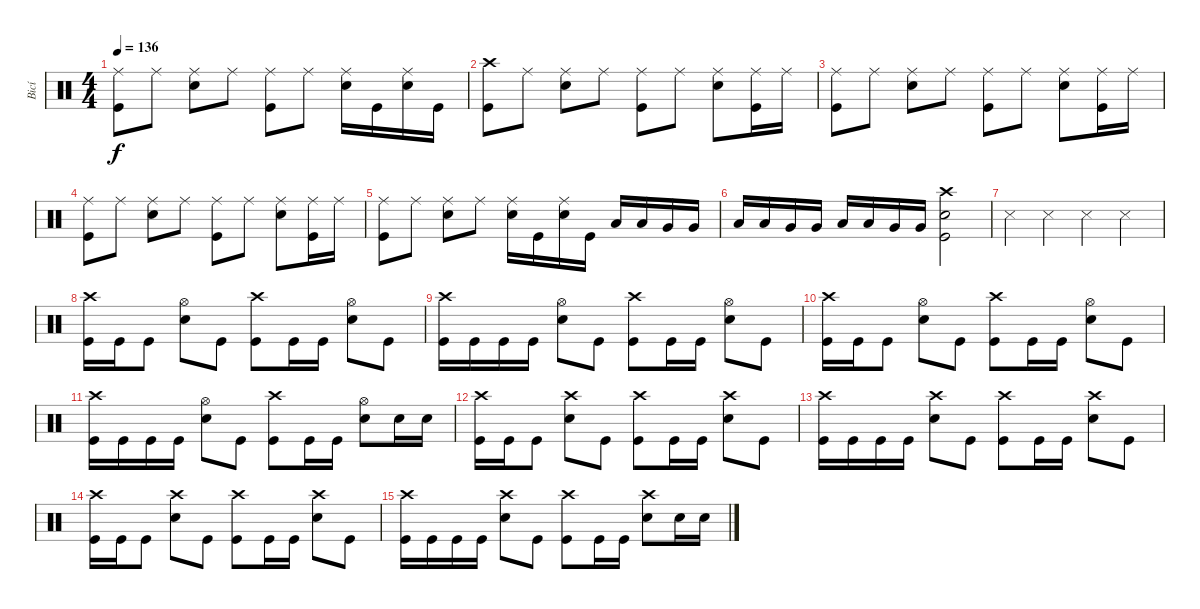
\track ("Bicí" "Bicí") {instrument percussion}
\staff {score}
\articulation defaults
\ts (4 4)
\tempo 136
\clef neutral
\ks c
("Kick (hit)" "Ride (middle)").8{dy f} "Ride (middle)".8 ("Snare (hit) 2" "Ride (middle)").8 "Ride (middle)".8 ("Kick (hit)" "Ride (middle)").8 "Ride (middle)".8 ("Snare (hit) 2" "Ride (middle)").16 "Kick (hit)".16 ("Snare (hit) 2" "Ride (middle)").16 "Kick (hit)".16 |
("Kick (hit)" "Crash high (hit)").8 "Ride (middle)".8 ("Snare (hit) 2" "Ride (middle)").8 "Ride (middle)".8 ("Kick (hit)" "Ride (middle)").8 "Ride (middle)".8 ("Snare (hit) 2" "Ride (middle)").8 ("Kick (hit)" "Ride (middle)").16 "Ride (middle)".16 |
("Kick (hit)" "Ride (middle)").8 "Ride (middle)".8 ("Snare (hit) 2" "Ride (middle)").8 "Ride (middle)".8 ("Kick (hit)" "Ride (middle)").8 "Ride (middle)".8 ("Snare (hit) 2" "Ride (middle)").8 ("Kick (hit)" "Ride (middle)").16 "Ride (middle)".16 |
("Kick (hit)" "Ride (middle)").8 "Ride (middle)".8 ("Snare (hit) 2" "Ride (middle)").8 "Ride (middle)".8 ("Kick (hit)" "Ride (middle)").8 "Ride (middle)".8 ("Snare (hit) 2" "Ride (middle)").8 ("Kick (hit)" "Ride (middle)").16 "Ride (middle)".16 |
("Kick (hit)" "Ride (middle)").8 "Ride (middle)".8 ("Snare (hit) 2" "Ride (middle)").8 "Ride (middle)".8 ("Snare (hit) 2" "Ride (middle)").16 "Kick (hit)".16 ("Snare (hit) 2" "Ride (middle)").16 "Kick (hit)".16 "Low Tom (hit)".16 "Low Tom (hit)".16 "Very Low Tom (hit)".16 "Very Low Tom (hit)".16 |
"Low Tom (hit)".16 "Low Tom (hit)".16 "Very Low Tom (hit)".16 "Very Low Tom (hit)".16 "Low Tom (hit)".16 "Low Tom (hit)".16 "Very Low Tom (hit)".16 "Very Low Tom (hit)".16 ("Kick (hit)" "Snare (hit) 2" "Crash high (hit)").2 |
"Snare (side stick) 3".4 "Snare (side stick) 3".4 "Snare (side stick) 3".4 "Snare (side stick) 3".4 |
("Crash high (hit)" "Kick (hit)").16 "Kick (hit)".16 "Kick (hit)".8 ("Snare (hit) 2" "Hi-Hat (open)").8 "Kick (hit)".8 ("Kick (hit)" "Crash high (hit)").8 "Kick (hit)".16 "Kick (hit)".16 ("Snare (hit) 2" "Hi-Hat (open)").8 "Kick (hit)".8 |
("Crash high (hit)" "Kick (hit)").16 "Kick (hit)".16 "Kick (hit)".16 "Kick (hit)".16 ("Hi-Hat (open)" "Snare (hit) 2").8 "Kick (hit)".8 ("Kick (hit)" "Crash high (hit)").8 "Kick (hit)".16 "Kick (hit)".16 ("Snare (hit) 2" "Hi-Hat (open)").8 "Kick (hit)".8 |
("Crash high (hit)" "Kick (hit)").16 "Kick (hit)".16 "Kick (hit)".8 ("Snare (hit) 2" "Hi-Hat (open)").8 "Kick (hit)".8 ("Kick (hit)" "Crash high (hit)").8 "Kick (hit)".16 "Kick (hit)".16 ("Snare (hit) 2" "Hi-Hat (open)").8 "Kick (hit)".8 |
("Crash high (hit)" "Kick (hit)").16 "Kick (hit)".16 "Kick (hit)".16 "Kick (hit)".16 ("Hi-Hat (open)" "Snare (hit) 2").8 "Kick (hit)".8 ("Kick (hit)" "Crash high (hit)").8 "Kick (hit)".16 "Kick (hit)".16 ("Snare (hit) 2" "Hi-Hat (open)").8 "Snare (hit) 2".16 "Snare (hit) 2".16 |
("Crash high (hit)" "Kick (hit)").16 "Kick (hit)".16 "Kick (hit)".8 ("Snare (hit) 2" "Crash high (hit)").8 "Kick (hit)".8 ("Kick (hit)" "Crash high (hit)").8 "Kick (hit)".16 "Kick (hit)".16 ("Snare (hit) 2" "Crash high (hit)").8 "Kick (hit)".8 |
("Crash high (hit)" "Kick (hit)").16 "Kick (hit)".16 "Kick (hit)".16 "Kick (hit)".16 ("Crash high (hit)" "Snare (hit) 2").8 "Kick (hit)".8 ("Kick (hit)" "Crash high (hit)").8 "Kick (hit)".16 "Kick (hit)".16 ("Snare (hit) 2" "Crash high (hit)").8 "Kick (hit)".8 |
("Crash high (hit)" "Kick (hit)").16 "Kick (hit)".16 "Kick (hit)".8 ("Snare (hit) 2" "Crash high (hit)").8 "Kick (hit)".8 ("Kick (hit)" "Crash high (hit)").8 "Kick (hit)".16 "Kick (hit)".16 ("Snare (hit) 2" "Crash high (hit)").8 "Kick (hit)".8 |
("Crash high (hit)" "Kick (hit)").16 "Kick (hit)".16 "Kick (hit)".16 "Kick (hit)".16 ("Crash high (hit)" "Snare (hit) 2").8 "Kick (hit)".8 ("Kick (hit)" "Crash high (hit)").8 "Kick (hit)".16 "Kick (hit)".16 ("Snare (hit) 2" "Crash high (hit)").8 "Snare (hit) 2".16 "Snare (hit) 2".16
